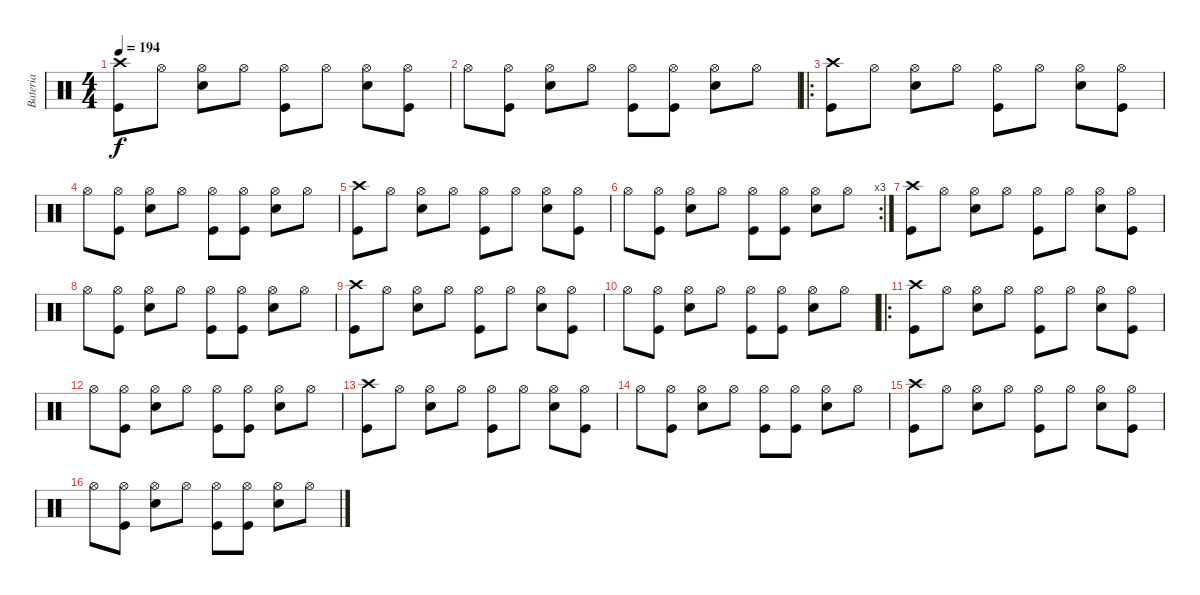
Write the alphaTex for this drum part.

\track ("Bateria" "Bateria") {instrument percussion}
\staff {score}
\articulation defaults
\ts (4 4)
\tempo 194
\clef neutral
\ks c
("Crash high (hit)" "Kick (hit)").8{dy f} "Hi-Hat (open)".8 ("Electric Snare (hit)" "Hi-Hat (open)").8 "Hi-Hat (open)".8 ("Hi-Hat (open)" "Kick (hit)").8 "Hi-Hat (open)".8 ("Electric Snare (hit)" "Hi-Hat (open)").8 ("Hi-Hat (open)" "Kick (hit)").8 |
"Hi-Hat (open)".8 ("Hi-Hat (open)" "Kick (hit)").8 ("Electric Snare (hit)" "Hi-Hat (open)").8 "Hi-Hat (open)".8 ("Hi-Hat (open)" "Kick (hit)").8 ("Hi-Hat (open)" "Kick (hit)").8 ("Electric Snare (hit)" "Hi-Hat (open)").8 "Hi-Hat (open)".8 |
\ro
("Crash high (hit)" "Kick (hit)").8 "Hi-Hat (open)".8 ("Electric Snare (hit)" "Hi-Hat (open)").8 "Hi-Hat (open)".8 ("Hi-Hat (open)" "Kick (hit)").8 "Hi-Hat (open)".8 ("Electric Snare (hit)" "Hi-Hat (open)").8 ("Hi-Hat (open)" "Kick (hit)").8 |
"Hi-Hat (open)".8 ("Hi-Hat (open)" "Kick (hit)").8 ("Electric Snare (hit)" "Hi-Hat (open)").8 "Hi-Hat (open)".8 ("Hi-Hat (open)" "Kick (hit)").8 ("Hi-Hat (open)" "Kick (hit)").8 ("Electric Snare (hit)" "Hi-Hat (open)").8 "Hi-Hat (open)".8 |
("Crash high (hit)" "Kick (hit)").8 "Hi-Hat (open)".8 ("Electric Snare (hit)" "Hi-Hat (open)").8 "Hi-Hat (open)".8 ("Hi-Hat (open)" "Kick (hit)").8 "Hi-Hat (open)".8 ("Electric Snare (hit)" "Hi-Hat (open)").8 ("Hi-Hat (open)" "Kick (hit)").8 |
\rc 3 "Hi-Hat (open)".8
("Hi-Hat (open)" "Kick (hit)").8 ("Electric Snare (hit)" "Hi-Hat (open)").8 "Hi-Hat (open)".8 ("Hi-Hat (open)" "Kick (hit)").8 ("Hi-Hat (open)" "Kick (hit)").8 ("Electric Snare (hit)" "Hi-Hat (open)").8 "Hi-Hat (open)".8 |
("Crash high (hit)" "Kick (hit)").8 "Hi-Hat (open)".8 ("Electric Snare (hit)" "Hi-Hat (open)").8 "Hi-Hat (open)".8 ("Hi-Hat (open)" "Kick (hit)").8 "Hi-Hat (open)".8 ("Electric Snare (hit)" "Hi-Hat (open)").8 ("Hi-Hat (open)" "Kick (hit)").8 |
"Hi-Hat (open)".8 ("Hi-Hat (open)" "Kick (hit)").8 ("Electric Snare (hit)" "Hi-Hat (open)").8 "Hi-Hat (open)".8 ("Hi-Hat (open)" "Kick (hit)").8 ("Hi-Hat (open)" "Kick (hit)").8 ("Electric Snare (hit)" "Hi-Hat (open)").8 "Hi-Hat (open)".8 |
("Crash high (hit)" "Kick (hit)").8 "Hi-Hat (open)".8 ("Electric Snare (hit)" "Hi-Hat (open)").8 "Hi-Hat (open)".8 ("Hi-Hat (open)" "Kick (hit)").8 "Hi-Hat (open)".8 ("Electric Snare (hit)" "Hi-Hat (open)").8 ("Hi-Hat (open)" "Kick (hit)").8 |
"Hi-Hat (open)".8 ("Hi-Hat (open)" "Kick (hit)").8 ("Electric Snare (hit)" "Hi-Hat (open)").8 "Hi-Hat (open)".8 ("Hi-Hat (open)" "Kick (hit)").8 ("Hi-Hat (open)" "Kick (hit)").8 ("Electric Snare (hit)" "Hi-Hat (open)").8 "Hi-Hat (open)".8 |
\ro
("Crash high (hit)" "Kick (hit)").8 "Hi-Hat (open)".8 ("Electric Snare (hit)" "Hi-Hat (open)").8 "Hi-Hat (open)".8 ("Hi-Hat (open)" "Kick (hit)").8 "Hi-Hat (open)".8 ("Electric Snare (hit)" "Hi-Hat (open)").8 ("Hi-Hat (open)" "Kick (hit)").8 |
"Hi-Hat (open)".8 ("Hi-Hat (open)" "Kick (hit)").8 ("Electric Snare (hit)" "Hi-Hat (open)").8 "Hi-Hat (open)".8 ("Hi-Hat (open)" "Kick (hit)").8 ("Hi-Hat (open)" "Kick (hit)").8 ("Electric Snare (hit)" "Hi-Hat (open)").8 "Hi-Hat (open)".8 |
("Crash high (hit)" "Kick (hit)").8 "Hi-Hat (open)".8 ("Electric Snare (hit)" "Hi-Hat (open)").8 "Hi-Hat (open)".8 ("Hi-Hat (open)" "Kick (hit)").8 "Hi-Hat (open)".8 ("Electric Snare (hit)" "Hi-Hat (open)").8 ("Hi-Hat (open)" "Kick (hit)").8 |
"Hi-Hat (open)".8 ("Hi-Hat (open)" "Kick (hit)").8 ("Electric Snare (hit)" "Hi-Hat (open)").8 "Hi-Hat (open)".8 ("Hi-Hat (open)" "Kick (hit)").8 ("Hi-Hat (open)" "Kick (hit)").8 ("Electric Snare (hit)" "Hi-Hat (open)").8 "Hi-Hat (open)".8 |
("Crash high (hit)" "Kick (hit)").8 "Hi-Hat (open)".8 ("Electric Snare (hit)" "Hi-Hat (open)").8 "Hi-Hat (open)".8 ("Hi-Hat (open)" "Kick (hit)").8 "Hi-Hat (open)".8 ("Electric Snare (hit)" "Hi-Hat (open)").8 ("Hi-Hat (open)" "Kick (hit)").8 |
"Hi-Hat (open)".8 ("Hi-Hat (open)" "Kick (hit)").8 ("Electric Snare (hit)" "Hi-Hat (open)").8 "Hi-Hat (open)".8 ("Hi-Hat (open)" "Kick (hit)").8 ("Hi-Hat (open)" "Kick (hit)").8 ("Electric Snare (hit)" "Hi-Hat (open)").8 "Hi-Hat (open)".8
